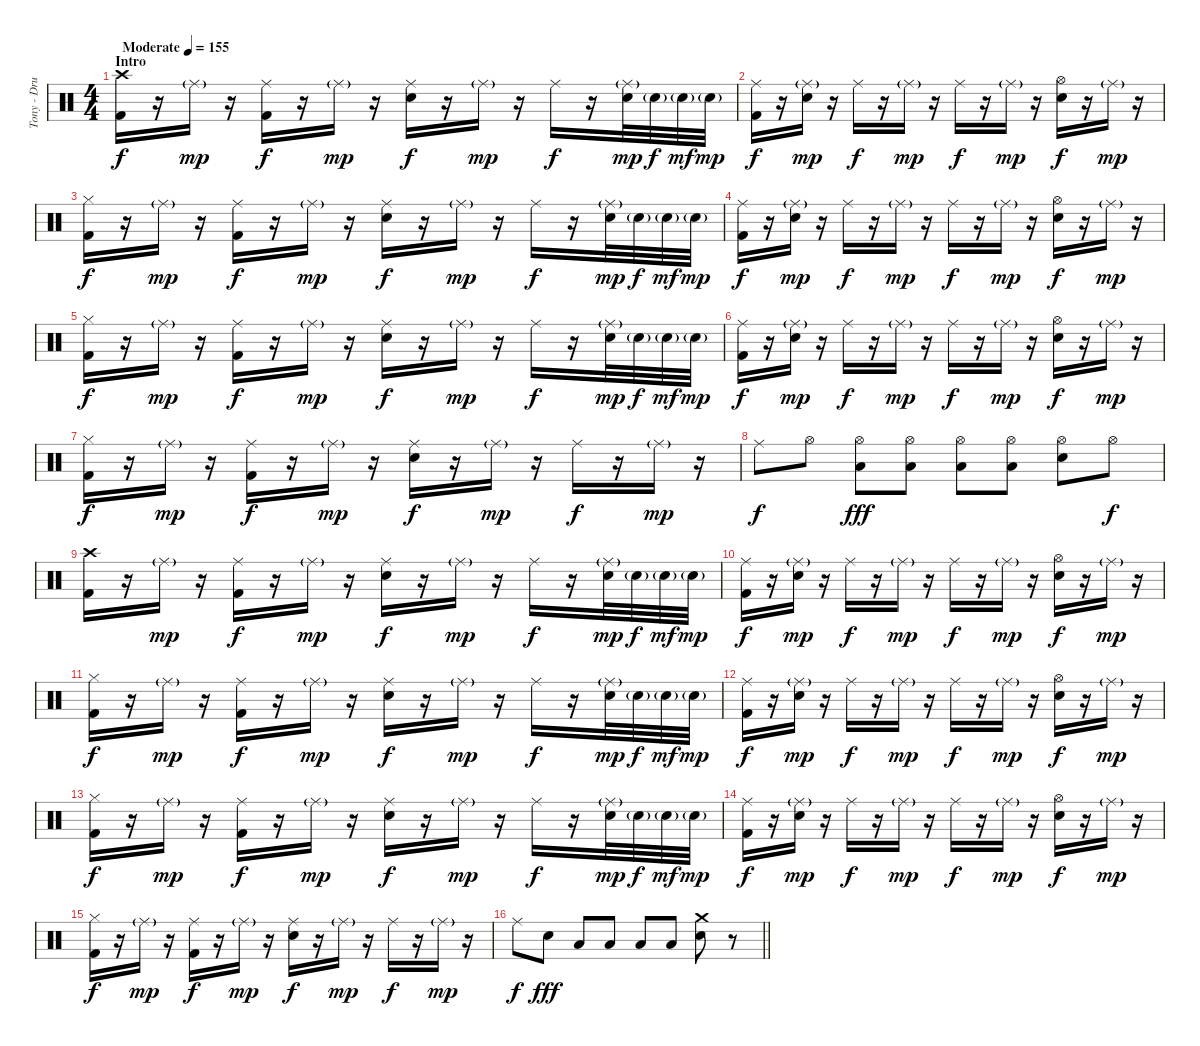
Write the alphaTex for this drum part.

\track ("Tony - Drums" "Tony - Dru") {instrument percussion}
\staff {score}
\articulation defaults
\ts (4 4)
\section ("" "Intro")
\tempo (155 "Moderate")
\clef neutral
\ks c
("Crash high (hit)" "Kick (hit) 2").16{dy f} r.16 "Ride (middle)"{g}.16{dy mp} r.16 ("Ride (middle)" "Kick (hit) 2").16{dy f} r.16 "Ride (middle)"{g}.16{dy mp} r.16 ("Ride (middle)" "Electric Snare (hit)").16{dy f} r.16 "Ride (middle)"{g}.16{dy mp} r.16 "Ride (middle)".16{dy f} r.16 ("Ride (middle)"{g} "Electric Snare (hit)").32{dy mp} "Electric Snare (hit)"{g}.32{dy f} "Electric Snare (hit)"{g}.32{dy mf} "Electric Snare (hit)"{g}.32{dy mp} |
("Ride (middle)" "Kick (hit) 2").16{dy f} r.16 ("Ride (middle)"{g} "Electric Snare (hit)").16{dy mp} r.16 "Ride (middle)".16{dy f} r.16 "Ride (middle)"{g}.16{dy mp} r.16 "Ride (middle)".16{dy f} r.16 "Ride (middle)"{g}.16{dy mp} r.16 ("Hi-Hat (open)" "Electric Snare (hit)").16{dy f} r.16 "Ride (middle)"{g}.16{dy mp} r.16 |
("Hi-Hat (closed)" "Kick (hit) 2").16{dy f} r.16 "Ride (middle)"{g}.16{dy mp} r.16 ("Ride (middle)" "Kick (hit) 2").16{dy f} r.16 "Ride (middle)"{g}.16{dy mp} r.16 ("Ride (middle)" "Electric Snare (hit)").16{dy f} r.16 "Ride (middle)"{g}.16{dy mp} r.16 "Ride (middle)".16{dy f} r.16 ("Ride (middle)"{g} "Electric Snare (hit)").32{dy mp} "Electric Snare (hit)"{g}.32{dy f} "Electric Snare (hit)"{g}.32{dy mf} "Electric Snare (hit)"{g}.32{dy mp} |
("Ride (middle)" "Kick (hit) 2").16{dy f} r.16 ("Ride (middle)"{g} "Electric Snare (hit)").16{dy mp} r.16 "Ride (middle)".16{dy f} r.16 "Ride (middle)"{g}.16{dy mp} r.16 "Ride (middle)".16{dy f} r.16 "Ride (middle)"{g}.16{dy mp} r.16 ("Hi-Hat (open)" "Electric Snare (hit)").16{dy f} r.16 "Ride (middle)"{g}.16{dy mp} r.16 |
("Hi-Hat (closed)" "Kick (hit) 2").16{dy f} r.16 "Ride (middle)"{g}.16{dy mp} r.16 ("Ride (middle)" "Kick (hit) 2").16{dy f} r.16 "Ride (middle)"{g}.16{dy mp} r.16 ("Ride (middle)" "Electric Snare (hit)").16{dy f} r.16 "Ride (middle)"{g}.16{dy mp} r.16 "Ride (middle)".16{dy f} r.16 ("Ride (middle)"{g} "Electric Snare (hit)").32{dy mp} "Electric Snare (hit)"{g}.32{dy f} "Electric Snare (hit)"{g}.32{dy mf} "Electric Snare (hit)"{g}.32{dy mp} |
("Ride (middle)" "Kick (hit) 2").16{dy f} r.16 ("Ride (middle)"{g} "Electric Snare (hit)").16{dy mp} r.16 "Ride (middle)".16{dy f} r.16 "Ride (middle)"{g}.16{dy mp} r.16 "Ride (middle)".16{dy f} r.16 "Ride (middle)"{g}.16{dy mp} r.16 ("Hi-Hat (open)" "Electric Snare (hit)").16{dy f} r.16 "Ride (middle)"{g}.16{dy mp} r.16 |
("Hi-Hat (closed)" "Kick (hit) 2").16{dy f} r.16 "Ride (middle)"{g}.16{dy mp} r.16 ("Ride (middle)" "Kick (hit) 2").16{dy f} r.16 "Ride (middle)"{g}.16{dy mp} r.16 ("Ride (middle)" "Electric Snare (hit)").16{dy f} r.16 "Ride (middle)"{g}.16{dy mp} r.16 "Ride (middle)".16{dy f} r.16 "Ride (middle)"{g}.16{dy mp} r.16{volume 6} |
"Ride (middle)".8{dy f volume 15} "Hi-Hat (open)".8 ("Hi-Hat (open)" "Low Floor Tom (hit)").8{dy fff} ("Hi-Hat (open)" "Low Floor Tom (hit)").8 ("Hi-Hat (open)" "Low Floor Tom (hit)").8 ("Hi-Hat (open)" "Low Floor Tom (hit)").8 ("Hi-Hat (open)" "Electric Snare (hit)").8 "Hi-Hat (open)".8{dy f} |
("Crash high (hit)" "Kick (hit) 2").16{volume 13} r.16 "Ride (middle)"{g}.16{dy mp} r.16 ("Ride (middle)" "Kick (hit) 2").16{dy f} r.16 "Ride (middle)"{g}.16{dy mp} r.16 ("Ride (middle)" "Electric Snare (hit)").16{dy f} r.16 "Ride (middle)"{g}.16{dy mp} r.16 "Ride (middle)".16{dy f} r.16 ("Ride (middle)"{g} "Electric Snare (hit)").32{dy mp} "Electric Snare (hit)"{g}.32{dy f} "Electric Snare (hit)"{g}.32{dy mf} "Electric Snare (hit)"{g}.32{dy mp} |
("Ride (middle)" "Kick (hit) 2").16{dy f} r.16 ("Ride (middle)"{g} "Electric Snare (hit)").16{dy mp} r.16 "Ride (middle)".16{dy f} r.16 "Ride (middle)"{g}.16{dy mp} r.16 "Ride (middle)".16{dy f} r.16 "Ride (middle)"{g}.16{dy mp} r.16 ("Hi-Hat (open)" "Electric Snare (hit)").16{dy f} r.16 "Ride (middle)"{g}.16{dy mp} r.16 |
("Hi-Hat (closed)" "Kick (hit) 2").16{dy f} r.16 "Ride (middle)"{g}.16{dy mp} r.16 ("Ride (middle)" "Kick (hit) 2").16{dy f} r.16 "Ride (middle)"{g}.16{dy mp} r.16 ("Ride (middle)" "Electric Snare (hit)").16{dy f} r.16 "Ride (middle)"{g}.16{dy mp} r.16 "Ride (middle)".16{dy f} r.16 ("Ride (middle)"{g} "Electric Snare (hit)").32{dy mp} "Electric Snare (hit)"{g}.32{dy f} "Electric Snare (hit)"{g}.32{dy mf} "Electric Snare (hit)"{g}.32{dy mp} |
("Ride (middle)" "Kick (hit) 2").16{dy f} r.16 ("Ride (middle)"{g} "Electric Snare (hit)").16{dy mp} r.16 "Ride (middle)".16{dy f} r.16 "Ride (middle)"{g}.16{dy mp} r.16 "Ride (middle)".16{dy f} r.16 "Ride (middle)"{g}.16{dy mp} r.16 ("Hi-Hat (open)" "Electric Snare (hit)").16{dy f} r.16 "Ride (middle)"{g}.16{dy mp} r.16 |
("Hi-Hat (closed)" "Kick (hit) 2").16{dy f} r.16 "Ride (middle)"{g}.16{dy mp} r.16 ("Ride (middle)" "Kick (hit) 2").16{dy f} r.16 "Ride (middle)"{g}.16{dy mp} r.16 ("Ride (middle)" "Electric Snare (hit)").16{dy f} r.16 "Ride (middle)"{g}.16{dy mp} r.16 "Ride (middle)".16{dy f} r.16 ("Ride (middle)"{g} "Electric Snare (hit)").32{dy mp} "Electric Snare (hit)"{g}.32{dy f} "Electric Snare (hit)"{g}.32{dy mf} "Electric Snare (hit)"{g}.32{dy mp} |
("Ride (middle)" "Kick (hit) 2").16{dy f} r.16 ("Ride (middle)"{g} "Electric Snare (hit)").16{dy mp} r.16 "Ride (middle)".16{dy f} r.16 "Ride (middle)"{g}.16{dy mp} r.16 "Ride (middle)".16{dy f} r.16 "Ride (middle)"{g}.16{dy mp} r.16 ("Hi-Hat (open)" "Electric Snare (hit)").16{dy f} r.16 "Ride (middle)"{g}.16{dy mp} r.16 |
("Hi-Hat (closed)" "Kick (hit) 2").16{dy f} r.16 "Ride (middle)"{g}.16{dy mp} r.16 ("Ride (middle)" "Kick (hit) 2").16{dy f} r.16 "Ride (middle)"{g}.16{dy mp} r.16 ("Ride (middle)" "Electric Snare (hit)").16{dy f} r.16 "Ride (middle)"{g}.16{dy mp} r.16 "Ride (middle)".16{dy f} r.16 "Ride (middle)"{g}.16{dy mp} r.16 |
\barLineRight lightlight "Ride (middle)".8{dy f} "Electric Snare (hit)".8{dy fff} "Low Tom (hit)".8 "Low Tom (hit)".8 "Low Floor Tom (hit)".8 "Low Floor Tom (hit)".8
("Crash medium (hit)" "Electric Snare (hit)").8 r.8
